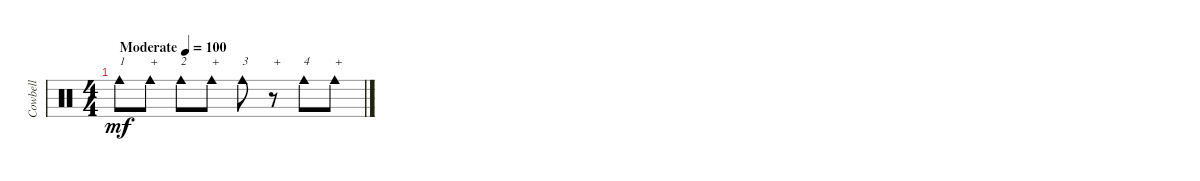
\track ("Cowbell" "Cowbell") {instrument percussion}
\staff {score}
\articulation defaults
\ts (4 4)
\tempo (100 "Moderate")
\clef neutral
\ks c "Cowbell medium (hit)".8{txt "1" dy mf} "Cowbell medium (hit)".8{txt "+"} "Cowbell medium (hit)".8{txt "2"} "Cowbell medium (hit)".8{txt "+"} "Cowbell medium (hit)".8{txt "3"}
r.8{txt "+"} "Cowbell medium (hit)".8{txt "4"} "Cowbell medium (hit)".8{txt "+"}
